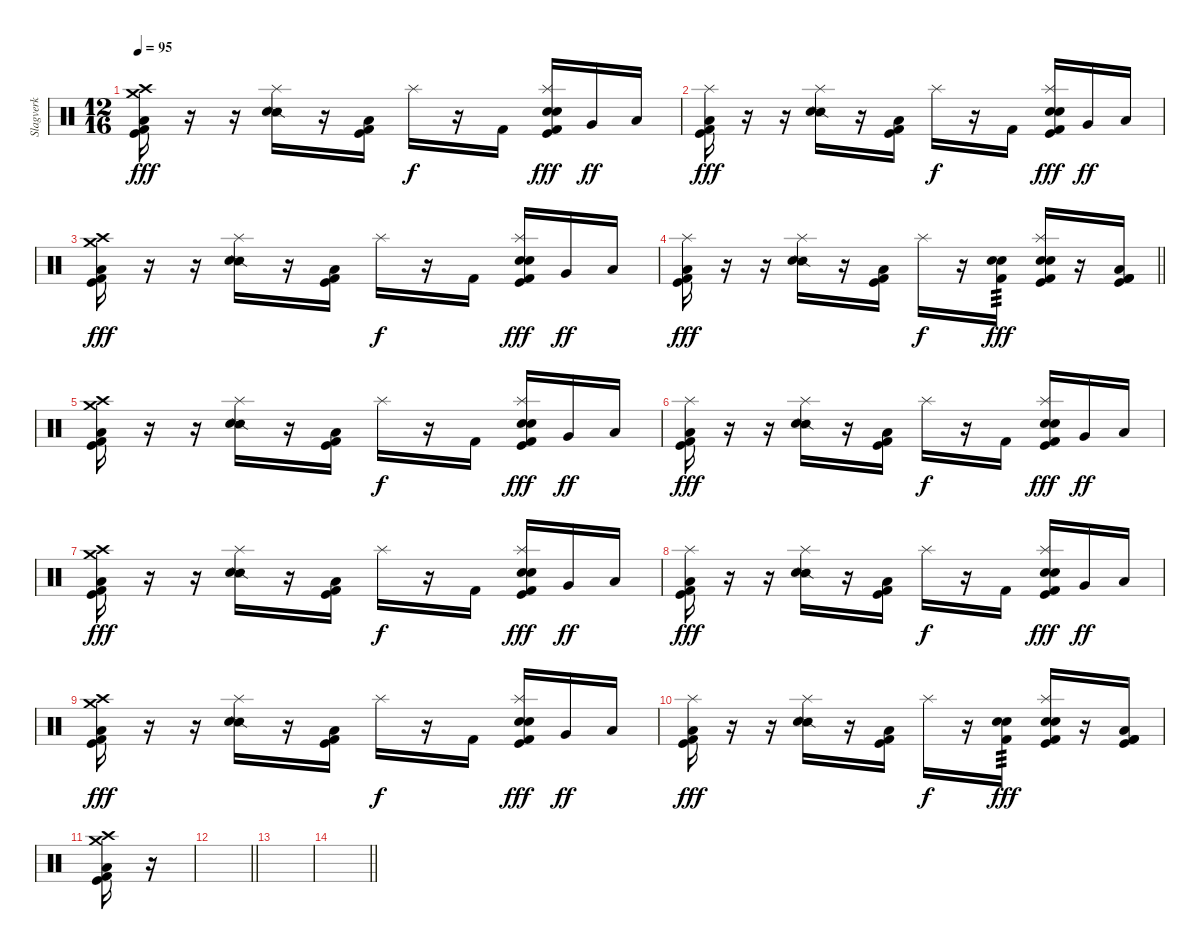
\track ("Slagverk" "Slagverk") {instrument percussion}
\staff {score}
\articulation defaults
\ts (12 16)
\tempo 95
\clef neutral
\ks c
("Crash high (hit)" "Crash medium (hit)" "Low Floor Tom (hit)" "Kick (hit)" "Kick (hit) 2").16{dy fff} r.16 r.16 ("Splash (hit)" "Snare (side stick) 2" "Snare (hit) 2").16 r.16 ("Low Floor Tom (hit)" "Kick (hit)" "Kick (hit) 2").16 "Splash (hit)".16{dy f} r.16 "Kick (hit) 2".16 ("Splash (hit)" "Snare (hit) 2" "Electric Snare (hit)" "Kick (hit)" "Kick (hit) 2").16{dy fff} "Very Low Tom (hit)".16{dy ff} "Low Floor Tom (hit)".16 |
("Splash (hit)" "Low Floor Tom (hit)" "Kick (hit)" "Kick (hit) 2").16{dy fff} r.16 r.16 ("Splash (hit)" "Snare (side stick) 2" "Snare (hit) 2").16 r.16 ("Low Floor Tom (hit)" "Kick (hit)" "Kick (hit) 2").16 "Splash (hit)".16{dy f} r.16 "Kick (hit) 2".16 ("Splash (hit)" "Snare (hit) 2" "Electric Snare (hit)" "Kick (hit)" "Kick (hit) 2").16{dy fff} "Very Low Tom (hit)".16{dy ff} "Low Floor Tom (hit)".16 |
("Crash high (hit)" "Crash medium (hit)" "Low Floor Tom (hit)" "Kick (hit)" "Kick (hit) 2").16{dy fff} r.16 r.16 ("Splash (hit)" "Snare (side stick) 2" "Snare (hit) 2").16 r.16 ("Low Floor Tom (hit)" "Kick (hit)" "Kick (hit) 2").16 "Splash (hit)".16{dy f} r.16 "Kick (hit) 2".16 ("Splash (hit)" "Snare (hit) 2" "Electric Snare (hit)" "Kick (hit)" "Kick (hit) 2").16{dy fff} "Very Low Tom (hit)".16{dy ff} "Low Floor Tom (hit)".16 |
\barLineRight lightlight
("Splash (hit)" "Low Floor Tom (hit)" "Kick (hit)" "Kick (hit) 2").16{dy fff} r.16 r.16 ("Splash (hit)" "Snare (side stick) 2" "Snare (hit) 2").16 r.16 ("Low Floor Tom (hit)" "Kick (hit)" "Kick (hit) 2").16 "Splash (hit)".16{dy f} r.16 ("Electric Snare (hit)" "Snare (hit) 2" "Kick (hit) 2").16{tp 3 dy fff} ("Splash (hit)" "Snare (hit) 2" "Electric Snare (hit)" "Kick (hit)" "Kick (hit) 2").16 r.16 ("Low Floor Tom (hit)" "Kick (hit) 2" "Kick (hit) 2" "Kick (hit)").16 |
("Crash high (hit)" "Crash medium (hit)" "Low Floor Tom (hit)" "Kick (hit)" "Kick (hit) 2").16 r.16 r.16 ("Splash (hit)" "Snare (side stick) 2" "Snare (hit) 2").16 r.16 ("Low Floor Tom (hit)" "Kick (hit)" "Kick (hit) 2").16 "Splash (hit)".16{dy f} r.16 "Kick (hit) 2".16 ("Splash (hit)" "Snare (hit) 2" "Electric Snare (hit)" "Kick (hit)" "Kick (hit) 2").16{dy fff} "Very Low Tom (hit)".16{dy ff} "Low Floor Tom (hit)".16 |
("Splash (hit)" "Low Floor Tom (hit)" "Kick (hit)" "Kick (hit) 2").16{dy fff} r.16 r.16 ("Splash (hit)" "Snare (side stick) 2" "Snare (hit) 2").16 r.16 ("Low Floor Tom (hit)" "Kick (hit)" "Kick (hit) 2").16 "Splash (hit)".16{dy f} r.16 "Kick (hit) 2".16 ("Splash (hit)" "Snare (hit) 2" "Electric Snare (hit)" "Kick (hit)" "Kick (hit) 2").16{dy fff} "Very Low Tom (hit)".16{dy ff} "Low Floor Tom (hit)".16 |
("Crash high (hit)" "Crash medium (hit)" "Low Floor Tom (hit)" "Kick (hit)" "Kick (hit) 2").16{dy fff} r.16 r.16 ("Splash (hit)" "Snare (side stick) 2" "Snare (hit) 2").16 r.16 ("Low Floor Tom (hit)" "Kick (hit)" "Kick (hit) 2").16 "Splash (hit)".16{dy f} r.16 "Kick (hit) 2".16 ("Splash (hit)" "Snare (hit) 2" "Electric Snare (hit)" "Kick (hit)" "Kick (hit) 2").16{dy fff} "Very Low Tom (hit)".16{dy ff} "Low Floor Tom (hit)".16 |
("Splash (hit)" "Low Floor Tom (hit)" "Kick (hit)" "Kick (hit) 2").16{dy fff} r.16 r.16 ("Splash (hit)" "Snare (side stick) 2" "Snare (hit) 2").16 r.16 ("Low Floor Tom (hit)" "Kick (hit)" "Kick (hit) 2").16 "Splash (hit)".16{dy f} r.16 "Kick (hit) 2".16 ("Splash (hit)" "Snare (hit) 2" "Electric Snare (hit)" "Kick (hit)" "Kick (hit) 2").16{dy fff} "Very Low Tom (hit)".16{dy ff} "Low Floor Tom (hit)".16 |
("Crash high (hit)" "Crash medium (hit)" "Low Floor Tom (hit)" "Kick (hit)" "Kick (hit) 2").16{dy fff} r.16 r.16 ("Splash (hit)" "Snare (side stick) 2" "Snare (hit) 2").16 r.16 ("Low Floor Tom (hit)" "Kick (hit)" "Kick (hit) 2").16 "Splash (hit)".16{dy f} r.16 "Kick (hit) 2".16 ("Splash (hit)" "Snare (hit) 2" "Electric Snare (hit)" "Kick (hit)" "Kick (hit) 2").16{dy fff} "Very Low Tom (hit)".16{dy ff} "Low Floor Tom (hit)".16 |
("Splash (hit)" "Low Floor Tom (hit)" "Kick (hit)" "Kick (hit) 2").16{dy fff} r.16 r.16 ("Splash (hit)" "Snare (side stick) 2" "Snare (hit) 2").16 r.16 ("Low Floor Tom (hit)" "Kick (hit)" "Kick (hit) 2").16 "Splash (hit)".16{dy f} r.16 ("Electric Snare (hit)" "Snare (hit) 2" "Kick (hit) 2").16{tp 3 dy fff} ("Splash (hit)" "Snare (hit) 2" "Electric Snare (hit)" "Kick (hit)" "Kick (hit) 2").16 r.16 ("Low Floor Tom (hit)" "Kick (hit) 2" "Kick (hit) 2" "Kick (hit)").16 |
("Crash high (hit)" "Crash medium (hit)" "Low Floor Tom (hit)" "Kick (hit)" "Kick (hit) 2").16 r.16 |
\barLineRight lightlight
|
|
\barLineRight lightlight
